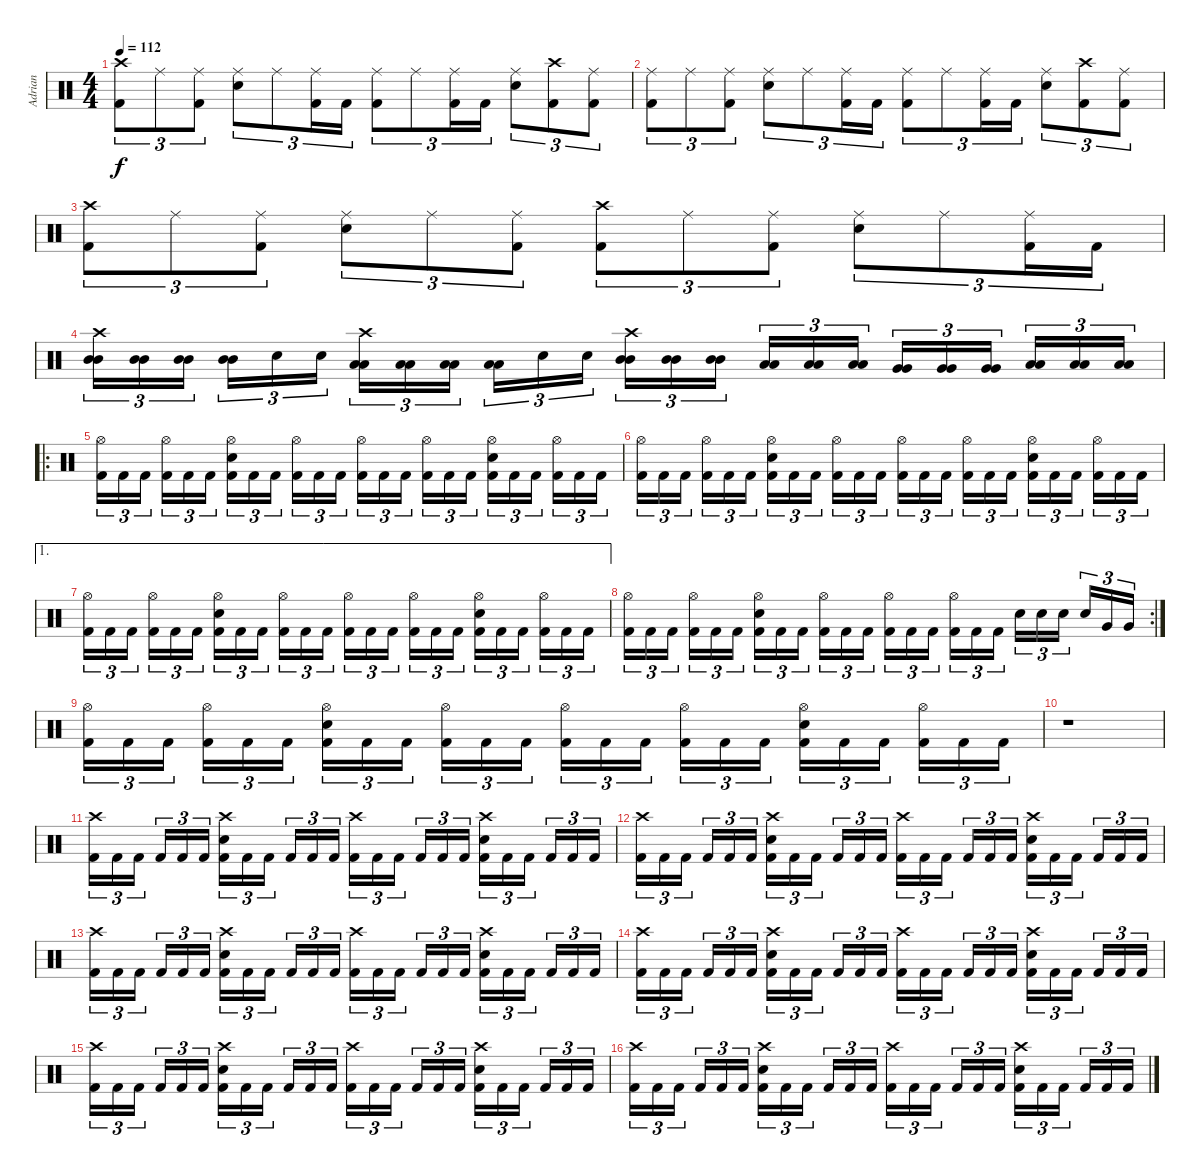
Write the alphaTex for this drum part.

\track ("Adrian" "Adrian") {instrument percussion}
\staff {score}
\articulation defaults
\ts (4 4)
\tempo 112
\clef neutral
\ks c
("Crash high (hit)" "Kick (hit) 2").8{tu (3 2) dy f} "Ride (middle)".8{tu (3 2)} ("Ride (middle)" "Kick (hit) 2").8{tu (3 2)} ("Ride (middle)" "Snare (hit) 2").8{tu (3 2)} "Ride (middle)".8{tu (3 2)} ("Ride (middle)" "Kick (hit) 2").16{tu (3 2)} "Kick (hit) 2".16{tu (3 2)} ("Ride (middle)" "Kick (hit) 2").8{tu (3 2)} "Ride (middle)".8{tu (3 2)} ("Ride (middle)" "Kick (hit) 2").16{tu (3 2)} "Kick (hit) 2".16{tu (3 2)} ("Ride (middle)" "Snare (hit) 2").8{tu (3 2)} ("Crash high (hit)" "Kick (hit) 2").8{tu (3 2)} ("Ride (middle)" "Kick (hit) 2").8{tu (3 2)} |
("Ride (middle)" "Kick (hit) 2").8{tu (3 2)} "Ride (middle)".8{tu (3 2)} ("Ride (middle)" "Kick (hit) 2").8{tu (3 2)} ("Ride (middle)" "Snare (hit) 2").8{tu (3 2)} "Ride (middle)".8{tu (3 2)} ("Ride (middle)" "Kick (hit) 2").16{tu (3 2)} "Kick (hit) 2".16{tu (3 2)} ("Ride (middle)" "Kick (hit) 2").8{tu (3 2)} "Ride (middle)".8{tu (3 2)} ("Ride (middle)" "Kick (hit) 2").16{tu (3 2)} "Kick (hit) 2".16{tu (3 2)} ("Ride (middle)" "Snare (hit) 2").8{tu (3 2)} ("Crash high (hit)" "Kick (hit) 2").8{tu (3 2)} ("Ride (middle)" "Kick (hit) 2").8{tu (3 2)} |
("Crash high (hit)" "Kick (hit) 2").8{tu (3 2)} "Ride (middle)".8{tu (3 2)} ("Ride (middle)" "Kick (hit) 2").8{tu (3 2)} ("Ride (middle)" "Snare (hit) 2").8{tu (3 2)} "Ride (middle)".8{tu (3 2)} ("Ride (middle)" "Kick (hit) 2").8{tu (3 2)} ("Crash high (hit)" "Kick (hit) 2").8{tu (3 2)} "Ride (middle)".8{tu (3 2)} ("Ride (middle)" "Kick (hit) 2").8{tu (3 2)} ("Ride (middle)" "Snare (hit) 2").8{tu (3 2)} "Ride (middle)".8{tu (3 2)} ("Ride (middle)" "Kick (hit) 2").16{tu (3 2)} "Kick (hit) 2".16{tu (3 2)} |
("Mid Tom (hit)" "Mid Tom (hit)" "Crash high (hit)").16{tu (3 2)} ("Mid Tom (hit)" "Mid Tom (hit)").16{tu (3 2)} ("Mid Tom (hit)" "Mid Tom (hit)").16{tu (3 2)} ("Mid Tom (hit)" "Mid Tom (hit)").16{tu (3 2)} "Snare (hit) 2".16{tu (3 2)} "Snare (hit) 2".16{tu (3 2)} ("Low Tom (hit)" "Low Tom (hit)" "Crash high (hit)").16{tu (3 2)} ("Low Tom (hit)" "Low Tom (hit)").16{tu (3 2)} ("Low Tom (hit)" "Low Tom (hit)").16{tu (3 2)} ("Low Tom (hit)" "Low Tom (hit)").16{tu (3 2)} "Snare (hit) 2".16{tu (3 2)} "Snare (hit) 2".16{tu (3 2)} ("Mid Tom (hit)" "Mid Tom (hit)" "Crash high (hit)").16{tu (3 2)} ("Mid Tom (hit)" "Mid Tom (hit)").16{tu (3 2)} ("Mid Tom (hit)" "Mid Tom (hit)").16{tu (3 2)} ("Low Tom (hit)" "Low Tom (hit)").16{tu (3 2)} ("Low Tom (hit)" "Low Tom (hit)").16{tu (3 2)} ("Low Tom (hit)" "Low Tom (hit)").16{tu (3 2)} ("Very Low Tom (hit)" "Very Low Tom (hit)").16{tu (3 2)} ("Very Low Tom (hit)" "Very Low Tom (hit)").16{tu (3 2)} ("Very Low Tom (hit)" "Very Low Tom (hit)").16{tu (3 2)} ("Low Floor Tom (hit)" "Low Floor Tom (hit)").16{tu (3 2)} ("Low Floor Tom (hit)" "Low Floor Tom (hit)").16{tu (3 2)} ("Low Floor Tom (hit)" "Low Floor Tom (hit)").16{tu (3 2)} |
\ro
("Hi-Hat (open)" "Kick (hit) 2").16{tu (3 2)} "Kick (hit) 2".16{tu (3 2)} "Kick (hit) 2".16{tu (3 2)} ("Hi-Hat (open)" "Kick (hit) 2").16{tu (3 2)} "Kick (hit) 2".16{tu (3 2)} "Kick (hit) 2".16{tu (3 2)} ("Hi-Hat (open)" "Snare (hit) 2" "Kick (hit) 2").16{tu (3 2)} "Kick (hit) 2".16{tu (3 2)} "Kick (hit) 2".16{tu (3 2)} ("Hi-Hat (open)" "Kick (hit) 2").16{tu (3 2)} "Kick (hit) 2".16{tu (3 2)} "Kick (hit) 2".16{tu (3 2)} ("Hi-Hat (open)" "Kick (hit) 2").16{tu (3 2)} "Kick (hit) 2".16{tu (3 2)} "Kick (hit) 2".16{tu (3 2)} ("Hi-Hat (open)" "Kick (hit) 2").16{tu (3 2)} "Kick (hit) 2".16{tu (3 2)} "Kick (hit) 2".16{tu (3 2)} ("Hi-Hat (open)" "Snare (hit) 2" "Kick (hit) 2").16{tu (3 2)} "Kick (hit) 2".16{tu (3 2)} "Kick (hit) 2".16{tu (3 2)} ("Hi-Hat (open)" "Kick (hit) 2").16{tu (3 2)} "Kick (hit) 2".16{tu (3 2)} "Kick (hit) 2".16{tu (3 2)} |
("Hi-Hat (open)" "Kick (hit) 2").16{tu (3 2)} "Kick (hit) 2".16{tu (3 2)} "Kick (hit) 2".16{tu (3 2)} ("Hi-Hat (open)" "Kick (hit) 2").16{tu (3 2)} "Kick (hit) 2".16{tu (3 2)} "Kick (hit) 2".16{tu (3 2)} ("Hi-Hat (open)" "Snare (hit) 2" "Kick (hit) 2").16{tu (3 2)} "Kick (hit) 2".16{tu (3 2)} "Kick (hit) 2".16{tu (3 2)} ("Hi-Hat (open)" "Kick (hit) 2").16{tu (3 2)} "Kick (hit) 2".16{tu (3 2)} "Kick (hit) 2".16{tu (3 2)} ("Hi-Hat (open)" "Kick (hit) 2").16{tu (3 2)} "Kick (hit) 2".16{tu (3 2)} "Kick (hit) 2".16{tu (3 2)} ("Hi-Hat (open)" "Kick (hit) 2").16{tu (3 2)} "Kick (hit) 2".16{tu (3 2)} "Kick (hit) 2".16{tu (3 2)} ("Hi-Hat (open)" "Snare (hit) 2" "Kick (hit) 2").16{tu (3 2)} "Kick (hit) 2".16{tu (3 2)} "Kick (hit) 2".16{tu (3 2)} ("Hi-Hat (open)" "Kick (hit) 2").16{tu (3 2)} "Kick (hit) 2".16{tu (3 2)} "Kick (hit) 2".16{tu (3 2)} |
\ae 1
("Hi-Hat (open)" "Kick (hit) 2").16{tu (3 2)} "Kick (hit) 2".16{tu (3 2)} "Kick (hit) 2".16{tu (3 2)} ("Hi-Hat (open)" "Kick (hit) 2").16{tu (3 2)} "Kick (hit) 2".16{tu (3 2)} "Kick (hit) 2".16{tu (3 2)} ("Hi-Hat (open)" "Snare (hit) 2" "Kick (hit) 2").16{tu (3 2)} "Kick (hit) 2".16{tu (3 2)} "Kick (hit) 2".16{tu (3 2)} ("Hi-Hat (open)" "Kick (hit) 2").16{tu (3 2)} "Kick (hit) 2".16{tu (3 2)} "Kick (hit) 2".16{tu (3 2)} ("Hi-Hat (open)" "Kick (hit) 2").16{tu (3 2)} "Kick (hit) 2".16{tu (3 2)} "Kick (hit) 2".16{tu (3 2)} ("Hi-Hat (open)" "Kick (hit) 2").16{tu (3 2)} "Kick (hit) 2".16{tu (3 2)} "Kick (hit) 2".16{tu (3 2)} ("Hi-Hat (open)" "Snare (hit) 2" "Kick (hit) 2").16{tu (3 2)} "Kick (hit) 2".16{tu (3 2)} "Kick (hit) 2".16{tu (3 2)} ("Hi-Hat (open)" "Kick (hit) 2").16{tu (3 2)} "Kick (hit) 2".16{tu (3 2)} "Kick (hit) 2".16{tu (3 2)} |
\rc 2
("Hi-Hat (open)" "Kick (hit) 2").16{tu (3 2)} "Kick (hit) 2".16{tu (3 2)} "Kick (hit) 2".16{tu (3 2)} ("Hi-Hat (open)" "Kick (hit) 2").16{tu (3 2)} "Kick (hit) 2".16{tu (3 2)} "Kick (hit) 2".16{tu (3 2)} ("Hi-Hat (open)" "Snare (hit) 2" "Kick (hit) 2").16{tu (3 2)} "Kick (hit) 2".16{tu (3 2)} "Kick (hit) 2".16{tu (3 2)} ("Hi-Hat (open)" "Kick (hit) 2").16{tu (3 2)} "Kick (hit) 2".16{tu (3 2)} "Kick (hit) 2".16{tu (3 2)} ("Hi-Hat (open)" "Kick (hit) 2").16{tu (3 2)} "Kick (hit) 2".16{tu (3 2)} "Kick (hit) 2".16{tu (3 2)} ("Hi-Hat (open)" "Kick (hit) 2").16{tu (3 2)} "Kick (hit) 2".16{tu (3 2)} "Kick (hit) 2".16{tu (3 2)} "Snare (hit) 2".16{tu (3 2)} "Snare (hit) 2".16{tu (3 2)} "Snare (hit) 2".16{tu (3 2)} "Snare (hit) 2".16{tu (3 2)} "Very Low Tom (hit)".16{tu (3 2)} "Very Low Tom (hit)".16{tu (3 2)} |
("Hi-Hat (open)" "Kick (hit) 2").16{tu (3 2)} "Kick (hit) 2".16{tu (3 2)} "Kick (hit) 2".16{tu (3 2)} ("Hi-Hat (open)" "Kick (hit) 2").16{tu (3 2)} "Kick (hit) 2".16{tu (3 2)} "Kick (hit) 2".16{tu (3 2)} ("Hi-Hat (open)" "Snare (hit) 2" "Kick (hit) 2").16{tu (3 2)} "Kick (hit) 2".16{tu (3 2)} "Kick (hit) 2".16{tu (3 2)} ("Hi-Hat (open)" "Kick (hit) 2").16{tu (3 2)} "Kick (hit) 2".16{tu (3 2)} "Kick (hit) 2".16{tu (3 2)} ("Hi-Hat (open)" "Kick (hit) 2").16{tu (3 2)} "Kick (hit) 2".16{tu (3 2)} "Kick (hit) 2".16{tu (3 2)} ("Hi-Hat (open)" "Kick (hit) 2").16{tu (3 2)} "Kick (hit) 2".16{tu (3 2)} "Kick (hit) 2".16{tu (3 2)} ("Hi-Hat (open)" "Snare (hit) 2" "Kick (hit) 2").16{tu (3 2)} "Kick (hit) 2".16{tu (3 2)} "Kick (hit) 2".16{tu (3 2)} ("Hi-Hat (open)" "Kick (hit) 2").16{tu (3 2)} "Kick (hit) 2".16{tu (3 2)} "Kick (hit) 2".16{tu (3 2)} |
r.1 |
("Crash high (hit)" "Kick (hit) 2").16{tu (3 2)} "Kick (hit) 2".16{tu (3 2)} "Kick (hit) 2".16{tu (3 2)} "Kick (hit) 2".16{tu (3 2)} "Kick (hit) 2".16{tu (3 2)} "Kick (hit) 2".16{tu (3 2)} ("Crash high (hit)" "Snare (hit) 2" "Kick (hit) 2").16{tu (3 2)} "Kick (hit) 2".16{tu (3 2)} "Kick (hit) 2".16{tu (3 2)} "Kick (hit) 2".16{tu (3 2)} "Kick (hit) 2".16{tu (3 2)} "Kick (hit) 2".16{tu (3 2)} ("Crash high (hit)" "Kick (hit) 2").16{tu (3 2)} "Kick (hit) 2".16{tu (3 2)} "Kick (hit) 2".16{tu (3 2)} "Kick (hit) 2".16{tu (3 2)} "Kick (hit) 2".16{tu (3 2)} "Kick (hit) 2".16{tu (3 2)} ("Crash high (hit)" "Snare (hit) 2" "Kick (hit) 2").16{tu (3 2)} "Kick (hit) 2".16{tu (3 2)} "Kick (hit) 2".16{tu (3 2)} "Kick (hit) 2".16{tu (3 2)} "Kick (hit) 2".16{tu (3 2)} "Kick (hit) 2".16{tu (3 2)} |
("Crash high (hit)" "Kick (hit) 2").16{tu (3 2)} "Kick (hit) 2".16{tu (3 2)} "Kick (hit) 2".16{tu (3 2)} "Kick (hit) 2".16{tu (3 2)} "Kick (hit) 2".16{tu (3 2)} "Kick (hit) 2".16{tu (3 2)} ("Crash high (hit)" "Snare (hit) 2" "Kick (hit) 2").16{tu (3 2)} "Kick (hit) 2".16{tu (3 2)} "Kick (hit) 2".16{tu (3 2)} "Kick (hit) 2".16{tu (3 2)} "Kick (hit) 2".16{tu (3 2)} "Kick (hit) 2".16{tu (3 2)} ("Crash high (hit)" "Kick (hit) 2").16{tu (3 2)} "Kick (hit) 2".16{tu (3 2)} "Kick (hit) 2".16{tu (3 2)} "Kick (hit) 2".16{tu (3 2)} "Kick (hit) 2".16{tu (3 2)} "Kick (hit) 2".16{tu (3 2)} ("Crash high (hit)" "Snare (hit) 2" "Kick (hit) 2").16{tu (3 2)} "Kick (hit) 2".16{tu (3 2)} "Kick (hit) 2".16{tu (3 2)} "Kick (hit) 2".16{tu (3 2)} "Kick (hit) 2".16{tu (3 2)} "Kick (hit) 2".16{tu (3 2)} |
("Crash high (hit)" "Kick (hit) 2").16{tu (3 2)} "Kick (hit) 2".16{tu (3 2)} "Kick (hit) 2".16{tu (3 2)} "Kick (hit) 2".16{tu (3 2)} "Kick (hit) 2".16{tu (3 2)} "Kick (hit) 2".16{tu (3 2)} ("Crash high (hit)" "Snare (hit) 2" "Kick (hit) 2").16{tu (3 2)} "Kick (hit) 2".16{tu (3 2)} "Kick (hit) 2".16{tu (3 2)} "Kick (hit) 2".16{tu (3 2)} "Kick (hit) 2".16{tu (3 2)} "Kick (hit) 2".16{tu (3 2)} ("Crash high (hit)" "Kick (hit) 2").16{tu (3 2)} "Kick (hit) 2".16{tu (3 2)} "Kick (hit) 2".16{tu (3 2)} "Kick (hit) 2".16{tu (3 2)} "Kick (hit) 2".16{tu (3 2)} "Kick (hit) 2".16{tu (3 2)} ("Crash high (hit)" "Snare (hit) 2" "Kick (hit) 2").16{tu (3 2)} "Kick (hit) 2".16{tu (3 2)} "Kick (hit) 2".16{tu (3 2)} "Kick (hit) 2".16{tu (3 2)} "Kick (hit) 2".16{tu (3 2)} "Kick (hit) 2".16{tu (3 2)} |
("Crash high (hit)" "Kick (hit) 2").16{tu (3 2)} "Kick (hit) 2".16{tu (3 2)} "Kick (hit) 2".16{tu (3 2)} "Kick (hit) 2".16{tu (3 2)} "Kick (hit) 2".16{tu (3 2)} "Kick (hit) 2".16{tu (3 2)} ("Crash high (hit)" "Snare (hit) 2" "Kick (hit) 2").16{tu (3 2)} "Kick (hit) 2".16{tu (3 2)} "Kick (hit) 2".16{tu (3 2)} "Kick (hit) 2".16{tu (3 2)} "Kick (hit) 2".16{tu (3 2)} "Kick (hit) 2".16{tu (3 2)} ("Crash high (hit)" "Kick (hit) 2").16{tu (3 2)} "Kick (hit) 2".16{tu (3 2)} "Kick (hit) 2".16{tu (3 2)} "Kick (hit) 2".16{tu (3 2)} "Kick (hit) 2".16{tu (3 2)} "Kick (hit) 2".16{tu (3 2)} ("Crash high (hit)" "Snare (hit) 2" "Kick (hit) 2").16{tu (3 2)} "Kick (hit) 2".16{tu (3 2)} "Kick (hit) 2".16{tu (3 2)} "Kick (hit) 2".16{tu (3 2)} "Kick (hit) 2".16{tu (3 2)} "Kick (hit) 2".16{tu (3 2)} |
("Crash high (hit)" "Kick (hit) 2").16{tu (3 2)} "Kick (hit) 2".16{tu (3 2)} "Kick (hit) 2".16{tu (3 2)} "Kick (hit) 2".16{tu (3 2)} "Kick (hit) 2".16{tu (3 2)} "Kick (hit) 2".16{tu (3 2)} ("Crash high (hit)" "Snare (hit) 2" "Kick (hit) 2").16{tu (3 2)} "Kick (hit) 2".16{tu (3 2)} "Kick (hit) 2".16{tu (3 2)} "Kick (hit) 2".16{tu (3 2)} "Kick (hit) 2".16{tu (3 2)} "Kick (hit) 2".16{tu (3 2)} ("Crash high (hit)" "Kick (hit) 2").16{tu (3 2)} "Kick (hit) 2".16{tu (3 2)} "Kick (hit) 2".16{tu (3 2)} "Kick (hit) 2".16{tu (3 2)} "Kick (hit) 2".16{tu (3 2)} "Kick (hit) 2".16{tu (3 2)} ("Crash high (hit)" "Snare (hit) 2" "Kick (hit) 2").16{tu (3 2)} "Kick (hit) 2".16{tu (3 2)} "Kick (hit) 2".16{tu (3 2)} "Kick (hit) 2".16{tu (3 2)} "Kick (hit) 2".16{tu (3 2)} "Kick (hit) 2".16{tu (3 2)} |
("Crash high (hit)" "Kick (hit) 2").16{tu (3 2)} "Kick (hit) 2".16{tu (3 2)} "Kick (hit) 2".16{tu (3 2)} "Kick (hit) 2".16{tu (3 2)} "Kick (hit) 2".16{tu (3 2)} "Kick (hit) 2".16{tu (3 2)} ("Crash high (hit)" "Snare (hit) 2" "Kick (hit) 2").16{tu (3 2)} "Kick (hit) 2".16{tu (3 2)} "Kick (hit) 2".16{tu (3 2)} "Kick (hit) 2".16{tu (3 2)} "Kick (hit) 2".16{tu (3 2)} "Kick (hit) 2".16{tu (3 2)} ("Crash high (hit)" "Kick (hit) 2").16{tu (3 2)} "Kick (hit) 2".16{tu (3 2)} "Kick (hit) 2".16{tu (3 2)} "Kick (hit) 2".16{tu (3 2)} "Kick (hit) 2".16{tu (3 2)} "Kick (hit) 2".16{tu (3 2)} ("Crash high (hit)" "Snare (hit) 2" "Kick (hit) 2").16{tu (3 2)} "Kick (hit) 2".16{tu (3 2)} "Kick (hit) 2".16{tu (3 2)} "Kick (hit) 2".16{tu (3 2)} "Kick (hit) 2".16{tu (3 2)} "Kick (hit) 2".16{tu (3 2)}
